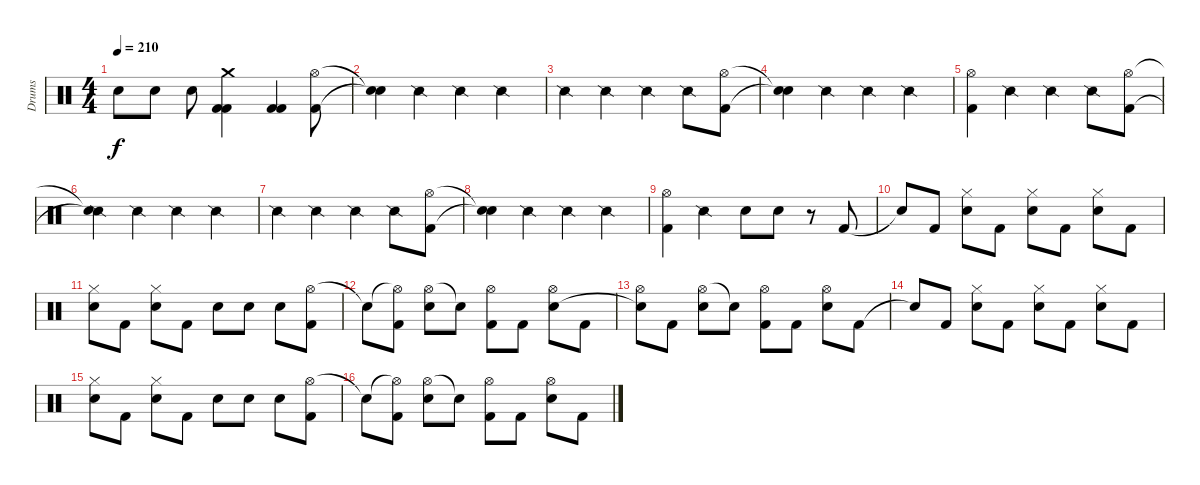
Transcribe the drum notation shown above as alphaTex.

\track ("Drums" "Drums") {instrument percussion}
\staff {score}
\articulation defaults
\ts (4 4)
\tempo 210
\clef neutral
\ks c "Electric Snare (hit)".8{dy f} "Electric Snare (hit)".8 "Electric Snare (hit)".8
("Crash medium (hit)" "Kick (hit) 2" "Kick (hit) 2").4 ("Kick (hit) 2" "Kick (hit) 2").4 ("Hi-Hat (open)" "Kick (hit) 2").8 |
("Snare (hit)"{t} "Snare (hit)"{t}).4 "Snare (side stick) 2".4 "Snare (side stick) 2".4 "Snare (side stick) 2".4 |
"Snare (side stick) 2".4 "Snare (side stick) 2".4 "Snare (side stick) 2".4 "Snare (side stick) 2".8 ("Hi-Hat (open)" "Kick (hit) 2").8 |
("Snare (hit)"{t} "Snare (hit)"{t}).4 "Snare (side stick) 2".4 "Snare (side stick) 2".4 "Snare (side stick) 2".4 |
("Hi-Hat (open)" "Kick (hit) 2").4 "Snare (side stick) 2".4 "Snare (side stick) 2".4 "Snare (side stick) 2".8 ("Hi-Hat (open)" "Kick (hit) 2").8 |
("Snare (side stick) 2"{t} "Snare (hit)"{t}).4 "Snare (side stick) 2".4 "Snare (side stick) 2".4 "Snare (side stick) 2".4 |
"Snare (side stick) 2".4 "Snare (side stick) 2".4 "Snare (side stick) 2".4 "Snare (side stick) 2".8 ("Hi-Hat (open)" "Kick (hit) 2").8 |
("Snare (hit)"{t} "Snare (hit)"{t}).4 "Snare (side stick) 2".4 "Snare (side stick) 2".4 "Snare (side stick) 2".4 |
("Hi-Hat (open)" "Kick (hit) 2").4 "Snare (side stick) 2".4 "Electric Snare (hit)".8 "Electric Snare (hit)".8 r.8 "Kick (hit) 2".8 |
"Snare (hit)"{t}.8 "Kick (hit) 2".8 ("Hi-Hat (closed)" "Electric Snare (hit)").8 "Kick (hit) 2".8 ("Hi-Hat (closed)" "Electric Snare (hit)").8 "Kick (hit) 2".8 ("Hi-Hat (closed)" "Electric Snare (hit)").8 "Kick (hit) 2".8 |
("Hi-Hat (closed)" "Electric Snare (hit)").8 "Kick (hit) 2".8 ("Hi-Hat (closed)" "Electric Snare (hit)").8 "Kick (hit) 2".8 "Electric Snare (hit)".8 "Electric Snare (hit)".8 "Electric Snare (hit)".8 ("Hi-Hat (open)" "Kick (hit) 2").8 |
"Snare (hit)"{t}.8 ("Hi-Hat (open)"{t} "Kick (hit) 2").8 ("Hi-Hat (open)" "Electric Snare (hit)").8 "Snare (hit)"{t}.8 ("Hi-Hat (open)" "Kick (hit) 2").8 "Kick (hit) 2".8 ("Hi-Hat (open)" "Electric Snare (hit)").8 "Kick (hit) 2".8 |
("Hi-Hat (open)" "Snare (hit)"{t}).8 "Kick (hit) 2".8 ("Hi-Hat (open)" "Electric Snare (hit)").8 "Snare (hit)"{t}.8 ("Hi-Hat (open)" "Kick (hit) 2").8 "Kick (hit) 2".8 ("Hi-Hat (open)" "Electric Snare (hit)").8 "Kick (hit) 2".8 |
"Snare (hit)"{t}.8 "Kick (hit) 2".8 ("Hi-Hat (closed)" "Electric Snare (hit)").8 "Kick (hit) 2".8 ("Hi-Hat (closed)" "Electric Snare (hit)").8 "Kick (hit) 2".8 ("Hi-Hat (closed)" "Electric Snare (hit)").8 "Kick (hit) 2".8 |
("Hi-Hat (closed)" "Electric Snare (hit)").8 "Kick (hit) 2".8 ("Hi-Hat (closed)" "Electric Snare (hit)").8 "Kick (hit) 2".8 "Electric Snare (hit)".8 "Electric Snare (hit)".8 "Electric Snare (hit)".8 ("Hi-Hat (open)" "Kick (hit) 2").8 |
"Snare (hit)"{t}.8 ("Hi-Hat (open)"{t} "Kick (hit) 2").8 ("Hi-Hat (open)" "Electric Snare (hit)").8 "Snare (hit)"{t}.8 ("Hi-Hat (open)" "Kick (hit) 2").8 "Kick (hit) 2".8 ("Hi-Hat (open)" "Electric Snare (hit)").8 "Kick (hit) 2".8
